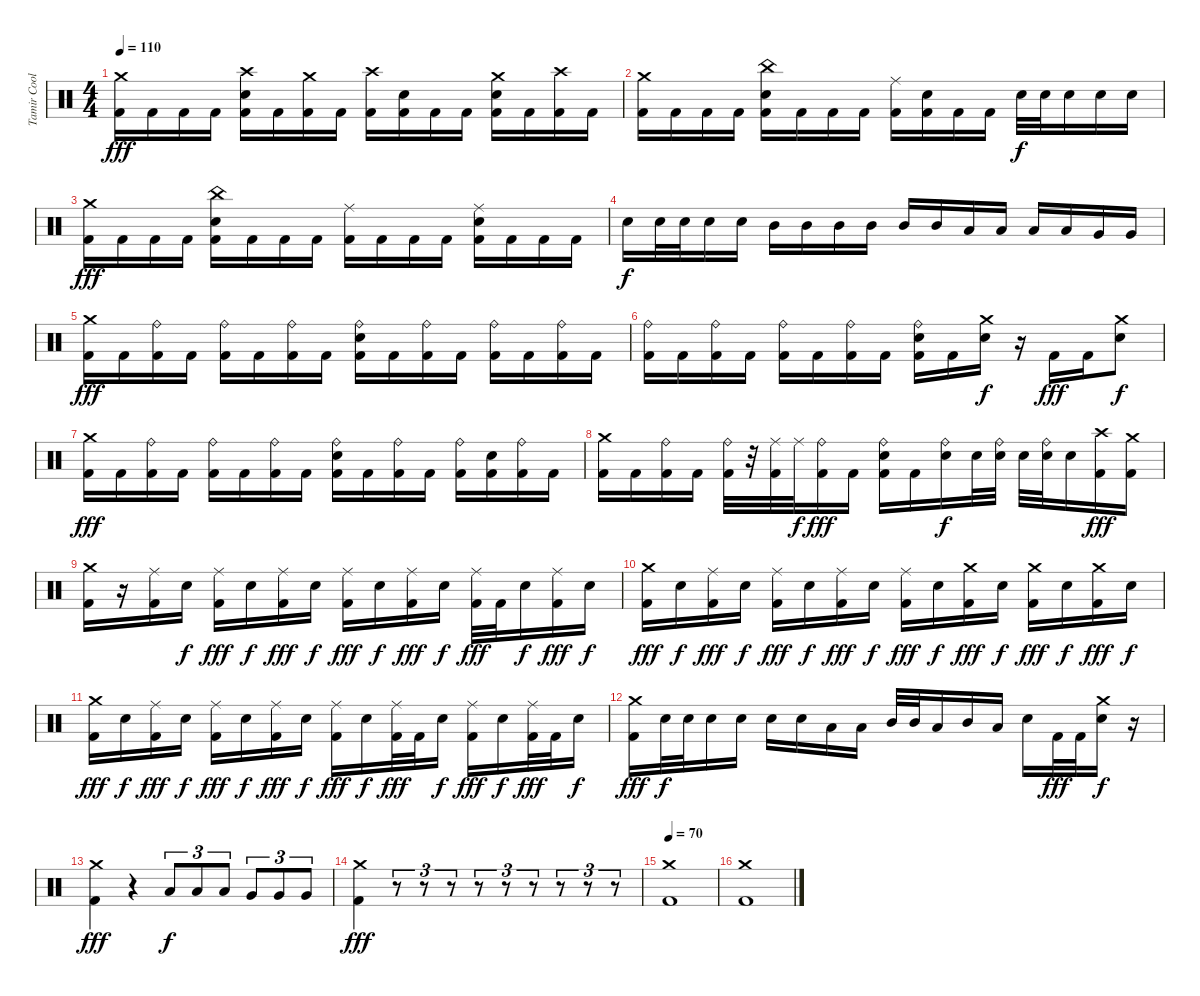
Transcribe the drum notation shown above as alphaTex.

\track ("Tamir Coolberg" "Tamir Cool") {instrument percussion}
\staff {score}
\articulation defaults
\ts (4 4)
\tempo 110
\clef neutral
\ks c
("Crash medium (hit)" "Kick (hit) 2").16{dy fff} "Kick (hit) 2".16 "Kick (hit) 2".16 "Kick (hit) 2".16 ("Crash high (hit)" "Electric Snare (hit)" "Kick (hit) 2").16 "Kick (hit) 2".16 ("Crash medium (hit)" "Kick (hit) 2").16 "Kick (hit) 2".16 ("Crash high (hit)" "Kick (hit) 2").16 ("Electric Snare (hit)" "Kick (hit) 2").16 "Kick (hit) 2".16 "Kick (hit) 2".16 ("Crash medium (hit)" "Electric Snare (hit)" "Kick (hit) 2").16 "Kick (hit) 2".16 ("Crash high (hit)" "Kick (hit) 2").16 "Kick (hit) 2".16 |
("Crash medium (hit)" "Kick (hit) 2").16 "Kick (hit) 2".16 "Kick (hit) 2".16 "Kick (hit) 2".16 ("China (hit)" "Electric Snare (hit)" "Kick (hit) 2").16 "Kick (hit) 2".16 "Kick (hit) 2".16 "Kick (hit) 2".16 ("Ride (middle)" "Kick (hit) 2").16 ("Electric Snare (hit)" "Kick (hit) 2").16 "Kick (hit) 2".16 "Kick (hit) 2".16 "Electric Snare (hit)".32{dy f} "Electric Snare (hit)".32 "Electric Snare (hit)".16 "Electric Snare (hit)".16 "Electric Snare (hit)".16 |
("Crash medium (hit)" "Kick (hit) 2").16{dy fff} "Kick (hit) 2".16 "Kick (hit) 2".16 "Kick (hit) 2".16 ("China (hit)" "Electric Snare (hit)" "Kick (hit) 2").16 "Kick (hit) 2".16 "Kick (hit) 2".16 "Kick (hit) 2".16 ("Ride (middle)" "Kick (hit) 2").16 "Kick (hit) 2".16 "Kick (hit) 2".16 "Kick (hit) 2".16 ("Ride (middle)" "Electric Snare (hit)" "Kick (hit) 2").16 "Kick (hit) 2".16 "Kick (hit) 2".16 "Kick (hit) 2".16 |
"Electric Snare (hit)".16{dy f} "Electric Snare (hit)".32 "Electric Snare (hit)".32 "Electric Snare (hit)".16 "Electric Snare (hit)".16 "Mid Tom (hit)".16 "Mid Tom (hit)".16 "Mid Tom (hit)".16 "Mid Tom (hit)".16 "Mid Tom (hit)".16 "Mid Tom (hit)".16 "Low Tom (hit)".16 "Low Tom (hit)".16 "Low Tom (hit)".16 "Low Tom (hit)".16 "Very Low Tom (hit)".16 "Very Low Tom (hit)".16 |
("Crash medium (hit)" "Kick (hit) 2").16{dy fff} "Kick (hit) 2".16 ("Ride (bell)" "Kick (hit) 2").16 "Kick (hit) 2".16 ("Ride (bell)" "Kick (hit) 2").16 "Kick (hit) 2".16 ("Ride (bell)" "Kick (hit) 2").16 "Kick (hit) 2".16 ("Ride (bell)" "Electric Snare (hit)" "Kick (hit) 2").16 "Kick (hit) 2".16 ("Ride (bell)" "Kick (hit) 2").16 "Kick (hit) 2".16 ("Ride (bell)" "Kick (hit) 2").16 "Kick (hit) 2".16 ("Ride (bell)" "Kick (hit) 2").16 "Kick (hit) 2".16 |
("Ride (bell)" "Kick (hit) 2").16 "Kick (hit) 2".16 ("Ride (bell)" "Kick (hit) 2").16 "Kick (hit) 2".16 ("Ride (bell)" "Kick (hit) 2").16 "Kick (hit) 2".16 ("Ride (bell)" "Kick (hit) 2").16 "Kick (hit) 2".16 ("Ride (bell)" "Electric Snare (hit)" "Kick (hit) 2").16 "Kick (hit) 2".16 ("Crash medium (hit)" "Electric Snare (hit)").16{dy f} r.16 "Kick (hit) 2".16{dy fff} "Kick (hit) 2".16 ("Crash medium (hit)" "Electric Snare (hit)").8{dy f} |
("Crash medium (hit)" "Kick (hit) 2").16{dy fff} "Kick (hit) 2".16 ("Ride (bell)" "Kick (hit) 2").16 "Kick (hit) 2".16 ("Ride (bell)" "Kick (hit) 2").16 "Kick (hit) 2".16 ("Ride (bell)" "Kick (hit) 2").16 "Kick (hit) 2".16 ("Ride (bell)" "Electric Snare (hit)" "Kick (hit) 2").16 "Kick (hit) 2".16 ("Ride (bell)" "Kick (hit) 2").16 "Kick (hit) 2".16 ("Ride (bell)" "Kick (hit) 2").16 ("Electric Snare (hit)" "Kick (hit) 2").16 ("Ride (bell)" "Kick (hit) 2").16 "Kick (hit) 2".16 |
("Crash medium (hit)" "Kick (hit) 2").16 "Kick (hit) 2".16 ("Ride (bell)" "Kick (hit) 2").16 "Kick (hit) 2".16 ("Ride (bell)" "Kick (hit) 2").32 r.32 ("Ride (middle)" "Kick (hit) 2").32 "Ride (middle)".32{dy f} ("Ride (bell)" "Kick (hit) 2").16{dy fff} "Kick (hit) 2".16 ("Ride (bell)" "Electric Snare (hit)" "Kick (hit) 2").16 "Kick (hit) 2".16 ("Ride (bell)" "Electric Snare (hit)").16{dy f} "Electric Snare (hit)".32 ("Ride (bell)" "Electric Snare (hit)").32 "Electric Snare (hit)".32 ("Ride (bell)" "Electric Snare (hit)").32 "Electric Snare (hit)".16 ("Crash high (hit)" "Kick (hit) 2").16{dy fff} ("Crash medium (hit)" "Kick (hit) 2").16 |
("Crash medium (hit)" "Kick (hit) 2").16 r.16 ("Ride (middle)" "Kick (hit) 2").16 "Electric Snare (hit)".16{dy f} ("Ride (middle)" "Kick (hit) 2").16{dy fff} "Electric Snare (hit)".16{dy f} ("Ride (middle)" "Kick (hit) 2").16{dy fff} "Electric Snare (hit)".16{dy f} ("Ride (middle)" "Kick (hit) 2").16{dy fff} "Electric Snare (hit)".16{dy f} ("Ride (middle)" "Kick (hit) 2").16{dy fff} "Electric Snare (hit)".16{dy f} ("Ride (middle)" "Kick (hit) 2").32{dy fff} "Kick (hit) 2".32 "Electric Snare (hit)".16{dy f} ("Ride (middle)" "Kick (hit) 2").16{dy fff} "Electric Snare (hit)".16{dy f} |
("Crash medium (hit)" "Kick (hit) 2").16{dy fff} "Electric Snare (hit)".16{dy f} ("Ride (middle)" "Kick (hit) 2").16{dy fff} "Electric Snare (hit)".16{dy f} ("Ride (middle)" "Kick (hit) 2").16{dy fff} "Electric Snare (hit)".16{dy f} ("Ride (middle)" "Kick (hit) 2").16{dy fff} "Electric Snare (hit)".16{dy f} ("Ride (middle)" "Kick (hit) 2").16{dy fff} "Electric Snare (hit)".16{dy f} ("Crash medium (hit)" "Kick (hit) 2").16{dy fff} "Electric Snare (hit)".16{dy f} ("Crash medium (hit)" "Kick (hit) 2").16{dy fff} "Electric Snare (hit)".16{dy f} ("Crash medium (hit)" "Kick (hit) 2").16{dy fff} "Electric Snare (hit)".16{dy f} |
("Crash medium (hit)" "Kick (hit) 2").16{dy fff} "Electric Snare (hit)".16{dy f} ("Ride (middle)" "Kick (hit) 2").16{dy fff} "Electric Snare (hit)".16{dy f} ("Ride (middle)" "Kick (hit) 2").16{dy fff} "Electric Snare (hit)".16{dy f} ("Ride (middle)" "Kick (hit) 2").16{dy fff} "Electric Snare (hit)".16{dy f} ("Ride (middle)" "Kick (hit) 2").16{dy fff} "Electric Snare (hit)".16{dy f} ("Ride (middle)" "Kick (hit) 2").32{dy fff} "Kick (hit) 2".32 "Electric Snare (hit)".16{dy f} ("Ride (middle)" "Kick (hit) 2").16{dy fff} "Electric Snare (hit)".16{dy f} ("Ride (middle)" "Kick (hit) 2").32{dy fff} "Kick (hit) 2".32 "Electric Snare (hit)".16{dy f} |
("Crash medium (hit)" "Kick (hit) 2").16{dy fff} "Electric Snare (hit)".32{dy f} "Electric Snare (hit)".32 "Electric Snare (hit)".16 "Electric Snare (hit)".16 "Electric Snare (hit)".16 "Electric Snare (hit)".16 "Low Tom (hit)".16 "Low Tom (hit)".16 "Mid Tom (hit)".32 "Mid Tom (hit)".32 "Low Tom (hit)".16 "Mid Tom (hit)".16 "Low Tom (hit)".16 "Electric Snare (hit)".16 "Kick (hit) 2".32{dy fff} "Kick (hit) 2".32 ("Crash medium (hit)" "Electric Snare (hit)").16{dy f} r.16 |
("Crash medium (hit)" "Kick (hit) 2").4{dy fff} r.4 "Low Tom (hit)".8{tu (3 2) dy f} "Low Tom (hit)".8{tu (3 2)} "Low Tom (hit)".8{tu (3 2)} "Very Low Tom (hit)".8{tu (3 2)} "Very Low Tom (hit)".8{tu (3 2)} "Very Low Tom (hit)".8{tu (3 2)} |
("Crash medium (hit)" "Kick (hit) 2").4{dy fff} r.8{tu (3 2)} r.8{tu (3 2)} r.8{tu (3 2)} r.8{tu (3 2)} r.8{tu (3 2)} r.8{tu (3 2)} r.8{tu (3 2)} r.8{tu (3 2)} r.8{tu (3 2)} |
\tempo 70
("Crash medium (hit)" "Kick (hit) 2").1 |
("Crash medium (hit)" "Kick (hit) 2").1
